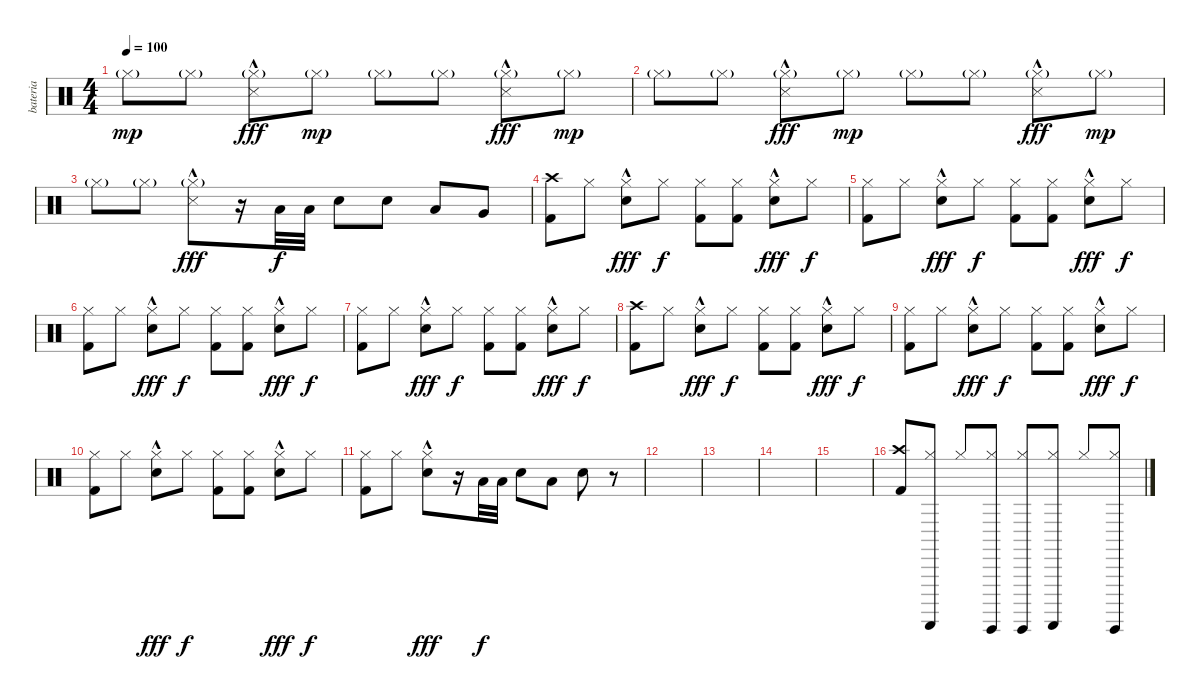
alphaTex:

\track ("bateria" "bateria") {instrument percussion}
\staff {score}
\articulation defaults
\ts (4 4)
\tempo 100
\clef neutral
\ks c "Hi-Hat (closed)"{g}.8{dy mp} "Hi-Hat (closed)"{g}.8
("Hi-Hat (closed)"{g} "Snare (side stick) 3"{hac}).8{dy fff} "Hi-Hat (closed)"{g}.8{dy mp} "Hi-Hat (closed)"{g}.8 "Hi-Hat (closed)"{g}.8 ("Hi-Hat (closed)"{g} "Snare (side stick) 3"{hac}).8{dy fff} "Hi-Hat (closed)"{g}.8{dy mp} |
"Hi-Hat (closed)"{g}.8 "Hi-Hat (closed)"{g}.8 ("Hi-Hat (closed)"{g} "Snare (side stick) 3"{hac}).8{dy fff} "Hi-Hat (closed)"{g}.8{dy mp} "Hi-Hat (closed)"{g}.8 "Hi-Hat (closed)"{g}.8 ("Hi-Hat (closed)"{g} "Snare (side stick) 3"{hac}).8{dy fff} "Hi-Hat (closed)"{g}.8{dy mp} |
"Hi-Hat (closed)"{g}.8 "Hi-Hat (closed)"{g}.8 ("Hi-Hat (closed)"{g} "Snare (side stick) 3"{hac}).8{dy fff} r.16 "Low Tom (hit)".32{dy f} "Low Tom (hit)".32 "Electric Snare (hit)".8 "Electric Snare (hit)".8 "Low Tom (hit)".8 "Very Low Tom (hit)".8 |
("Crash high (hit)" "Kick (hit) 2").8 "Hi-Hat (closed)".8 ("Hi-Hat (closed)" "Electric Snare (hit)"{hac}).8{dy fff} "Hi-Hat (closed)".8{dy f} ("Hi-Hat (closed)" "Kick (hit) 2").8 ("Hi-Hat (closed)" "Kick (hit) 2").8 ("Hi-Hat (closed)" "Electric Snare (hit)"{hac}).8{dy fff} "Hi-Hat (closed)".8{dy f} |
("Hi-Hat (closed)" "Kick (hit) 2").8 "Hi-Hat (closed)".8 ("Hi-Hat (closed)" "Electric Snare (hit)"{hac}).8{dy fff} "Hi-Hat (closed)".8{dy f} ("Hi-Hat (closed)" "Kick (hit) 2").8 ("Hi-Hat (closed)" "Kick (hit) 2").8 ("Hi-Hat (closed)" "Electric Snare (hit)"{hac}).8{dy fff} "Hi-Hat (closed)".8{dy f} |
("Hi-Hat (closed)" "Kick (hit) 2").8 "Hi-Hat (closed)".8 ("Hi-Hat (closed)" "Electric Snare (hit)"{hac}).8{dy fff} "Hi-Hat (closed)".8{dy f} ("Hi-Hat (closed)" "Kick (hit) 2").8 ("Hi-Hat (closed)" "Kick (hit) 2").8 ("Hi-Hat (closed)" "Electric Snare (hit)"{hac}).8{dy fff} "Hi-Hat (closed)".8{dy f} |
("Hi-Hat (closed)" "Kick (hit) 2").8 "Hi-Hat (closed)".8 ("Hi-Hat (closed)" "Electric Snare (hit)"{hac}).8{dy fff} "Hi-Hat (closed)".8{dy f} ("Hi-Hat (closed)" "Kick (hit) 2").8 ("Hi-Hat (closed)" "Kick (hit) 2").8 ("Hi-Hat (closed)" "Electric Snare (hit)"{hac}).8{dy fff} "Hi-Hat (closed)".8{dy f} |
("Crash high (hit)" "Kick (hit) 2").8 "Hi-Hat (closed)".8 ("Hi-Hat (closed)" "Electric Snare (hit)"{hac}).8{dy fff} "Hi-Hat (closed)".8{dy f} ("Hi-Hat (closed)" "Kick (hit) 2").8 ("Hi-Hat (closed)" "Kick (hit) 2").8 ("Hi-Hat (closed)" "Electric Snare (hit)"{hac}).8{dy fff} "Hi-Hat (closed)".8{dy f} |
("Hi-Hat (closed)" "Kick (hit) 2").8 "Hi-Hat (closed)".8 ("Hi-Hat (closed)" "Electric Snare (hit)"{hac}).8{dy fff} "Hi-Hat (closed)".8{dy f} ("Hi-Hat (closed)" "Kick (hit) 2").8 ("Hi-Hat (closed)" "Kick (hit) 2").8 ("Hi-Hat (closed)" "Electric Snare (hit)"{hac}).8{dy fff} "Hi-Hat (closed)".8{dy f} |
("Hi-Hat (closed)" "Kick (hit) 2").8 "Hi-Hat (closed)".8 ("Hi-Hat (closed)" "Electric Snare (hit)"{hac}).8{dy fff} "Hi-Hat (closed)".8{dy f} ("Hi-Hat (closed)" "Kick (hit) 2").8 ("Hi-Hat (closed)" "Kick (hit) 2").8 ("Hi-Hat (closed)" "Electric Snare (hit)"{hac}).8{dy fff} "Hi-Hat (closed)".8{dy f} |
("Hi-Hat (closed)" "Kick (hit) 2").8 "Hi-Hat (closed)".8 ("Hi-Hat (closed)" "Electric Snare (hit)"{hac}).8{dy fff} r.16 "Low Tom (hit)".32{dy f} "Low Tom (hit)".32 "Electric Snare (hit)".8 "Low Tom (hit)".8 "Electric Snare (hit)".8 r.8 |
|
|
|
|
("Crash high (hit)" "Kick (hit) 2").8 ("Hi-Hat (closed)" "Guiro (scrap-return)").8 "Hi-Hat (closed)".8 ("Hi-Hat (closed)" "Guiro (hit)").8 ("Hi-Hat (closed)" "Guiro (hit)").8 ("Hi-Hat (closed)" "Guiro (scrap-return)").8 "Hi-Hat (closed)".8 ("Hi-Hat (closed)" "Guiro (hit)").8
